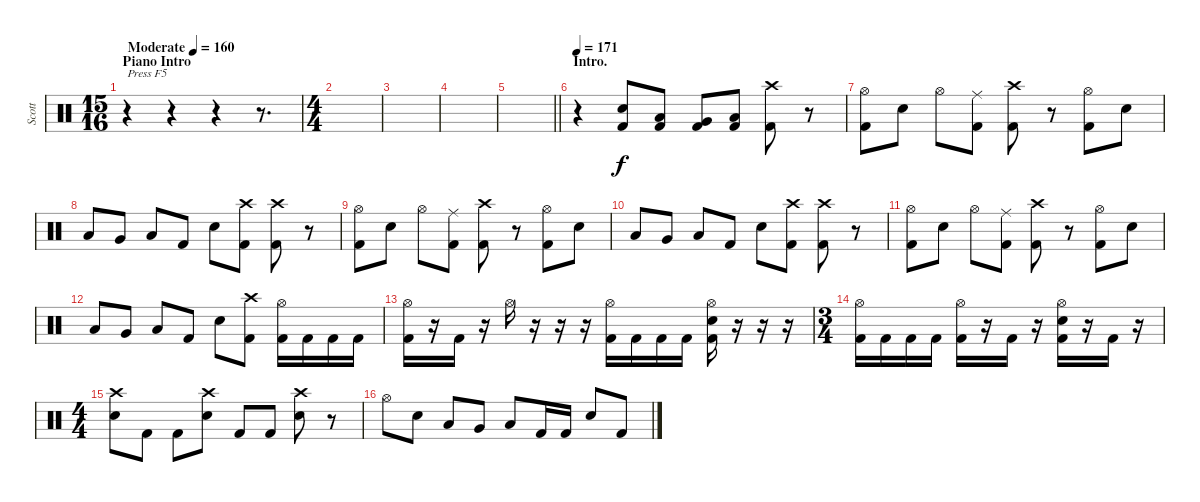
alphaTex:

\track ("Scott" "Scott") {instrument percussion}
\staff {score}
\articulation defaults
\ts (15 16)
\section ("" "Piano Intro")
\tempo (160 "Moderate")
\clef neutral
\ks c
r.4{txt "Press F5" dy f} r.4 r.4 r.8{d} |
\ts (4 4)
|
|
|
\barLineRight lightlight
|
\section ("" "Intro.")
\tempo 171
r.4 ("Electric Snare (hit)" "Kick (hit) 2").8 ("Low Tom (hit)" "Kick (hit) 2").8 ("Very Low Tom (hit)" "Kick (hit) 2").8 ("Low Floor Tom (hit)" "Kick (hit) 2").8 ("Crash high (hit)" "Kick (hit) 2").8 r.8 |
("Hi-Hat (open)" "Kick (hit) 2").8 "Electric Snare (hit)".8 "Hi-Hat (open)".8 ("Ride (middle)" "Kick (hit) 2").8 ("Crash high (hit)" "Kick (hit) 2").8 r.8 ("Hi-Hat (open)" "Kick (hit) 2").8 "Electric Snare (hit)".8 |
"Low Tom (hit)".8 "Very Low Tom (hit)".8 "Low Floor Tom (hit)".8 "Kick (hit) 2".8 "Electric Snare (hit)".8 ("Crash high (hit)" "Kick (hit) 2").8 ("Crash high (hit)" "Kick (hit) 2").8 r.8 |
("Hi-Hat (open)" "Kick (hit) 2").8 "Electric Snare (hit)".8 "Hi-Hat (open)".8 ("Ride (middle)" "Kick (hit) 2").8 ("Crash high (hit)" "Kick (hit) 2").8 r.8 ("Hi-Hat (open)" "Kick (hit) 2").8 "Electric Snare (hit)".8 |
"Low Tom (hit)".8 "Very Low Tom (hit)".8 "Low Floor Tom (hit)".8 "Kick (hit) 2".8 "Electric Snare (hit)".8 ("Crash high (hit)" "Kick (hit) 2").8 ("Crash high (hit)" "Kick (hit) 2").8 r.8 |
("Hi-Hat (open)" "Kick (hit) 2").8 "Electric Snare (hit)".8 "Hi-Hat (open)".8 ("Ride (middle)" "Kick (hit) 2").8 ("Crash high (hit)" "Kick (hit) 2").8 r.8 ("Hi-Hat (open)" "Kick (hit) 2").8 "Electric Snare (hit)".8 |
"Low Tom (hit)".8 "Very Low Tom (hit)".8 "Low Floor Tom (hit)".8 "Kick (hit) 2".8 "Electric Snare (hit)".8 ("Crash high (hit)" "Kick (hit) 2").8 ("Hi-Hat (open)" "Kick (hit) 2").16 "Kick (hit) 2".16 "Kick (hit) 2".16 "Kick (hit) 2".16 |
("Hi-Hat (open)" "Kick (hit) 2").16 r.16 "Kick (hit) 2".16 r.16 "Hi-Hat (open)".16 r.16 r.16 r.16 ("Hi-Hat (open)" "Kick (hit) 2").16 "Kick (hit) 2".16 "Kick (hit) 2".16 "Kick (hit) 2".16 ("Hi-Hat (open)" "Electric Snare (hit)" "Kick (hit) 2").16 r.16 r.16 r.16 |
\ts (3 4)
("Hi-Hat (open)" "Kick (hit) 2").16 "Kick (hit) 2".16 "Kick (hit) 2".16 "Kick (hit) 2".16 ("Hi-Hat (open)" "Kick (hit) 2").16 r.16 "Kick (hit) 2".16 r.16 ("Hi-Hat (open)" "Electric Snare (hit)" "Kick (hit) 2").16 r.16 "Kick (hit) 2".16 r.16 |
\ts (4 4)
("Crash high (hit)" "Electric Snare (hit)").8 "Kick (hit) 2".8 "Kick (hit) 2".8 ("Crash high (hit)" "Electric Snare (hit)").8 "Kick (hit) 2".8 "Kick (hit) 2".8 ("Crash high (hit)" "Electric Snare (hit)").8 r.8 |
"Hi-Hat (open)".8 "Electric Snare (hit)".8 "Low Tom (hit)".8 "Very Low Tom (hit)".8 "Low Floor Tom (hit)".8 "Kick (hit) 2".16 "Kick (hit) 2".16 "Electric Snare (hit)".8 "Kick (hit) 2".8
